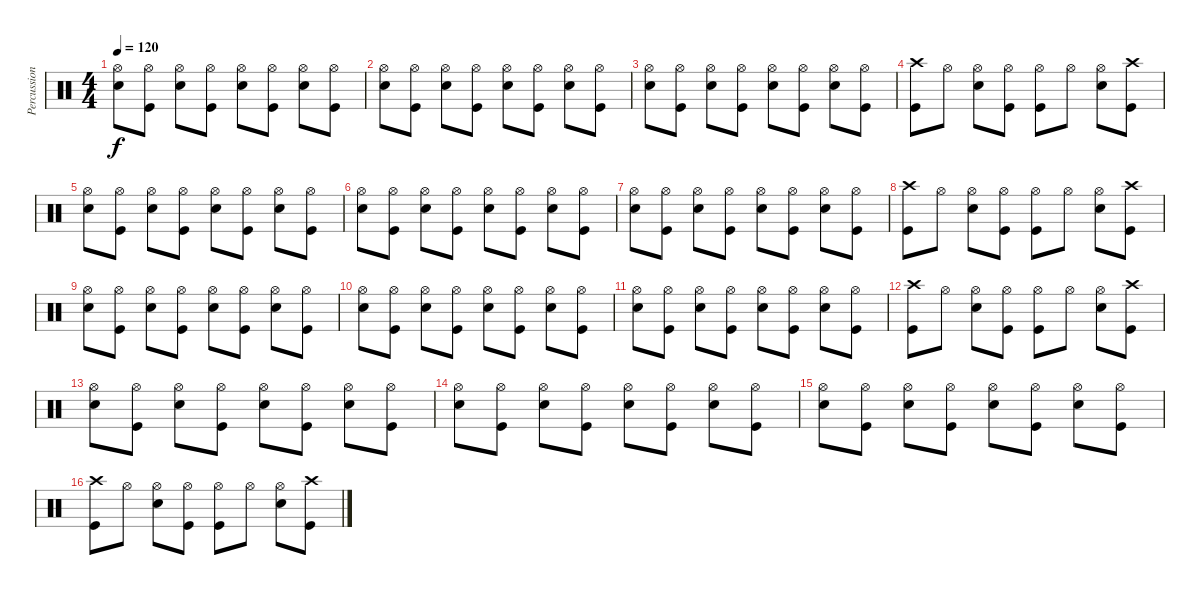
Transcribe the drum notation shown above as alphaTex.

\track ("Percussion" "Percussion") {instrument percussion}
\staff {score}
\articulation defaults
\ts (4 4)
\tempo 120
\clef neutral
\ks c
("Hi-Hat (open)" "Snare (hit) 2").8{dy f} ("Hi-Hat (open)" "Kick (hit)").8 ("Hi-Hat (open)" "Snare (hit) 2").8 ("Hi-Hat (open)" "Kick (hit)").8 ("Hi-Hat (open)" "Snare (hit) 2").8 ("Hi-Hat (open)" "Kick (hit)").8 ("Hi-Hat (open)" "Snare (hit) 2").8 ("Hi-Hat (open)" "Kick (hit)").8 |
("Hi-Hat (open)" "Snare (hit) 2").8 ("Hi-Hat (open)" "Kick (hit)").8 ("Hi-Hat (open)" "Snare (hit) 2").8 ("Hi-Hat (open)" "Kick (hit)").8 ("Hi-Hat (open)" "Snare (hit) 2").8 ("Hi-Hat (open)" "Kick (hit)").8 ("Hi-Hat (open)" "Snare (hit) 2").8 ("Hi-Hat (open)" "Kick (hit)").8 |
("Hi-Hat (open)" "Snare (hit) 2").8 ("Hi-Hat (open)" "Kick (hit)").8 ("Hi-Hat (open)" "Snare (hit) 2").8 ("Hi-Hat (open)" "Kick (hit)").8 ("Hi-Hat (open)" "Snare (hit) 2").8 ("Hi-Hat (open)" "Kick (hit)").8 ("Hi-Hat (open)" "Snare (hit) 2").8 ("Hi-Hat (open)" "Kick (hit)").8 |
("Crash high (hit)" "Kick (hit)").8 "Hi-Hat (open)".8 ("Hi-Hat (open)" "Snare (hit) 2").8 ("Hi-Hat (open)" "Kick (hit)").8 ("Hi-Hat (open)" "Kick (hit)").8 "Hi-Hat (open)".8 ("Hi-Hat (open)" "Snare (hit) 2").8 ("Crash high (hit)" "Kick (hit)").8 |
("Hi-Hat (open)" "Snare (hit) 2").8 ("Hi-Hat (open)" "Kick (hit)").8 ("Hi-Hat (open)" "Snare (hit) 2").8 ("Hi-Hat (open)" "Kick (hit)").8 ("Hi-Hat (open)" "Snare (hit) 2").8 ("Hi-Hat (open)" "Kick (hit)").8 ("Hi-Hat (open)" "Snare (hit) 2").8 ("Hi-Hat (open)" "Kick (hit)").8 |
("Hi-Hat (open)" "Snare (hit) 2").8 ("Hi-Hat (open)" "Kick (hit)").8 ("Hi-Hat (open)" "Snare (hit) 2").8 ("Hi-Hat (open)" "Kick (hit)").8 ("Hi-Hat (open)" "Snare (hit) 2").8 ("Hi-Hat (open)" "Kick (hit)").8 ("Hi-Hat (open)" "Snare (hit) 2").8 ("Hi-Hat (open)" "Kick (hit)").8 |
("Hi-Hat (open)" "Snare (hit) 2").8 ("Hi-Hat (open)" "Kick (hit)").8 ("Hi-Hat (open)" "Snare (hit) 2").8 ("Hi-Hat (open)" "Kick (hit)").8 ("Hi-Hat (open)" "Snare (hit) 2").8 ("Hi-Hat (open)" "Kick (hit)").8 ("Hi-Hat (open)" "Snare (hit) 2").8 ("Hi-Hat (open)" "Kick (hit)").8 |
("Crash high (hit)" "Kick (hit)").8 "Hi-Hat (open)".8 ("Hi-Hat (open)" "Snare (hit) 2").8 ("Hi-Hat (open)" "Kick (hit)").8 ("Hi-Hat (open)" "Kick (hit)").8 "Hi-Hat (open)".8 ("Hi-Hat (open)" "Snare (hit) 2").8 ("Crash high (hit)" "Kick (hit)").8 |
("Hi-Hat (open)" "Snare (hit) 2").8 ("Hi-Hat (open)" "Kick (hit)").8 ("Hi-Hat (open)" "Snare (hit) 2").8 ("Hi-Hat (open)" "Kick (hit)").8 ("Hi-Hat (open)" "Snare (hit) 2").8 ("Hi-Hat (open)" "Kick (hit)").8 ("Hi-Hat (open)" "Snare (hit) 2").8 ("Hi-Hat (open)" "Kick (hit)").8 |
("Hi-Hat (open)" "Snare (hit) 2").8 ("Hi-Hat (open)" "Kick (hit)").8 ("Hi-Hat (open)" "Snare (hit) 2").8 ("Hi-Hat (open)" "Kick (hit)").8 ("Hi-Hat (open)" "Snare (hit) 2").8 ("Hi-Hat (open)" "Kick (hit)").8 ("Hi-Hat (open)" "Snare (hit) 2").8 ("Hi-Hat (open)" "Kick (hit)").8 |
("Hi-Hat (open)" "Snare (hit) 2").8 ("Hi-Hat (open)" "Kick (hit)").8 ("Hi-Hat (open)" "Snare (hit) 2").8 ("Hi-Hat (open)" "Kick (hit)").8 ("Hi-Hat (open)" "Snare (hit) 2").8 ("Hi-Hat (open)" "Kick (hit)").8 ("Hi-Hat (open)" "Snare (hit) 2").8 ("Hi-Hat (open)" "Kick (hit)").8 |
("Crash high (hit)" "Kick (hit)").8 "Hi-Hat (open)".8 ("Hi-Hat (open)" "Snare (hit) 2").8 ("Hi-Hat (open)" "Kick (hit)").8 ("Hi-Hat (open)" "Kick (hit)").8 "Hi-Hat (open)".8 ("Hi-Hat (open)" "Snare (hit) 2").8 ("Crash high (hit)" "Kick (hit)").8 |
("Hi-Hat (open)" "Snare (hit) 2").8 ("Hi-Hat (open)" "Kick (hit)").8 ("Hi-Hat (open)" "Snare (hit) 2").8 ("Hi-Hat (open)" "Kick (hit)").8 ("Hi-Hat (open)" "Snare (hit) 2").8 ("Hi-Hat (open)" "Kick (hit)").8 ("Hi-Hat (open)" "Snare (hit) 2").8 ("Hi-Hat (open)" "Kick (hit)").8 |
("Hi-Hat (open)" "Snare (hit) 2").8 ("Hi-Hat (open)" "Kick (hit)").8 ("Hi-Hat (open)" "Snare (hit) 2").8 ("Hi-Hat (open)" "Kick (hit)").8 ("Hi-Hat (open)" "Snare (hit) 2").8 ("Hi-Hat (open)" "Kick (hit)").8 ("Hi-Hat (open)" "Snare (hit) 2").8 ("Hi-Hat (open)" "Kick (hit)").8 |
("Hi-Hat (open)" "Snare (hit) 2").8 ("Hi-Hat (open)" "Kick (hit)").8 ("Hi-Hat (open)" "Snare (hit) 2").8 ("Hi-Hat (open)" "Kick (hit)").8 ("Hi-Hat (open)" "Snare (hit) 2").8 ("Hi-Hat (open)" "Kick (hit)").8 ("Hi-Hat (open)" "Snare (hit) 2").8 ("Hi-Hat (open)" "Kick (hit)").8 |
("Crash high (hit)" "Kick (hit)").8 "Hi-Hat (open)".8 ("Hi-Hat (open)" "Snare (hit) 2").8 ("Hi-Hat (open)" "Kick (hit)").8 ("Hi-Hat (open)" "Kick (hit)").8 "Hi-Hat (open)".8 ("Hi-Hat (open)" "Snare (hit) 2").8 ("Crash high (hit)" "Kick (hit)").8
